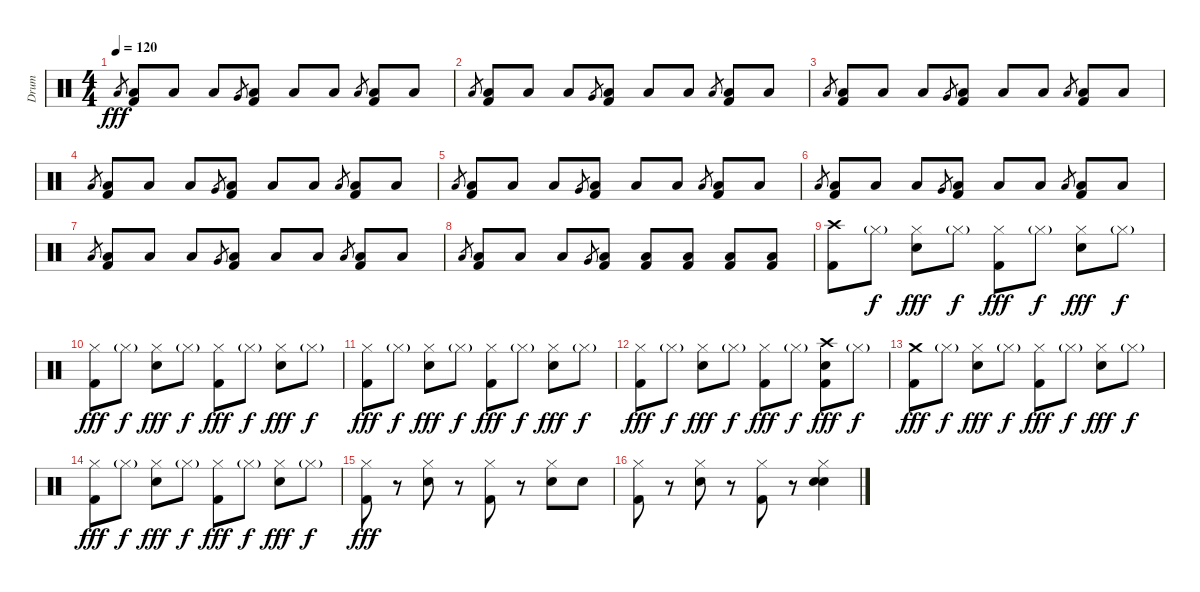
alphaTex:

\track ("Drum" "Drum") {instrument percussion}
\staff {score}
\articulation defaults
\ts (4 4)
\tempo 120
\clef neutral
\ks c "Low Floor Tom (hit)".8{gr dy fff}
("Low Floor Tom (hit)" "Kick (hit) 2").8 "Low Floor Tom (hit)".8 "Low Floor Tom (hit)".8 "Very Low Tom (hit)".8{gr} ("Low Floor Tom (hit)" "Kick (hit) 2").8 "Low Floor Tom (hit)".8 "Low Floor Tom (hit)".8 "Low Floor Tom (hit)".8{gr} ("Low Floor Tom (hit)" "Kick (hit) 2").8 "Low Floor Tom (hit)".8 |
"Low Floor Tom (hit)".8{gr} ("Low Floor Tom (hit)" "Kick (hit) 2").8 "Low Floor Tom (hit)".8 "Low Floor Tom (hit)".8 "Very Low Tom (hit)".8{gr} ("Low Floor Tom (hit)" "Kick (hit) 2").8 "Low Floor Tom (hit)".8 "Low Floor Tom (hit)".8 "Low Floor Tom (hit)".8{gr} ("Low Floor Tom (hit)" "Kick (hit) 2").8 "Low Floor Tom (hit)".8 |
"Low Floor Tom (hit)".8{gr} ("Low Floor Tom (hit)" "Kick (hit) 2").8 "Low Floor Tom (hit)".8 "Low Floor Tom (hit)".8 "Very Low Tom (hit)".8{gr} ("Low Floor Tom (hit)" "Kick (hit) 2").8 "Low Floor Tom (hit)".8 "Low Floor Tom (hit)".8 "Low Floor Tom (hit)".8{gr} ("Low Floor Tom (hit)" "Kick (hit) 2").8 "Low Floor Tom (hit)".8 |
"Low Floor Tom (hit)".8{gr} ("Low Floor Tom (hit)" "Kick (hit) 2").8 "Low Floor Tom (hit)".8 "Low Floor Tom (hit)".8 "Very Low Tom (hit)".8{gr} ("Low Floor Tom (hit)" "Kick (hit) 2").8 "Low Floor Tom (hit)".8 "Low Floor Tom (hit)".8 "Low Floor Tom (hit)".8{gr} ("Low Floor Tom (hit)" "Kick (hit) 2").8 "Low Floor Tom (hit)".8 |
"Low Floor Tom (hit)".8{gr} ("Low Floor Tom (hit)" "Kick (hit) 2").8 "Low Floor Tom (hit)".8 "Low Floor Tom (hit)".8 "Very Low Tom (hit)".8{gr} ("Low Floor Tom (hit)" "Kick (hit) 2").8 "Low Floor Tom (hit)".8 "Low Floor Tom (hit)".8 "Low Floor Tom (hit)".8{gr} ("Low Floor Tom (hit)" "Kick (hit) 2").8 "Low Floor Tom (hit)".8 |
"Low Floor Tom (hit)".8{gr} ("Low Floor Tom (hit)" "Kick (hit) 2").8 "Low Floor Tom (hit)".8 "Low Floor Tom (hit)".8 "Very Low Tom (hit)".8{gr} ("Low Floor Tom (hit)" "Kick (hit) 2").8 "Low Floor Tom (hit)".8 "Low Floor Tom (hit)".8 "Low Floor Tom (hit)".8{gr} ("Low Floor Tom (hit)" "Kick (hit) 2").8 "Low Floor Tom (hit)".8 |
"Low Floor Tom (hit)".8{gr} ("Low Floor Tom (hit)" "Kick (hit) 2").8 "Low Floor Tom (hit)".8 "Low Floor Tom (hit)".8 "Very Low Tom (hit)".8{gr} ("Low Floor Tom (hit)" "Kick (hit) 2").8 "Low Floor Tom (hit)".8 "Low Floor Tom (hit)".8 "Low Floor Tom (hit)".8{gr} ("Low Floor Tom (hit)" "Kick (hit) 2").8 "Low Floor Tom (hit)".8 |
"Low Floor Tom (hit)".8{gr} ("Low Floor Tom (hit)" "Kick (hit) 2").8 "Low Floor Tom (hit)".8 "Low Floor Tom (hit)".8 "Very Low Tom (hit)".8{gr} ("Low Floor Tom (hit)" "Kick (hit) 2").8 ("Low Floor Tom (hit)" "Kick (hit) 2").8 ("Low Floor Tom (hit)" "Kick (hit) 2").8 ("Low Floor Tom (hit)" "Kick (hit) 2").8 ("Low Floor Tom (hit)" "Kick (hit) 2").8 |
("Crash high (hit)" "Kick (hit) 2").8 "Hi-Hat (closed)"{g}.8{dy f} ("Hi-Hat (closed)" "Snare (hit) 2").8{dy fff} "Hi-Hat (closed)"{g}.8{dy f} ("Hi-Hat (closed)" "Kick (hit) 2").8{dy fff} "Hi-Hat (closed)"{g}.8{dy f} ("Hi-Hat (closed)" "Snare (hit) 2").8{dy fff} "Hi-Hat (closed)"{g}.8{dy f} |
("Hi-Hat (closed)" "Kick (hit) 2").8{dy fff} "Hi-Hat (closed)"{g}.8{dy f} ("Hi-Hat (closed)" "Snare (hit) 2").8{dy fff} "Hi-Hat (closed)"{g}.8{dy f} ("Hi-Hat (closed)" "Kick (hit) 2").8{dy fff} "Hi-Hat (closed)"{g}.8{dy f} ("Hi-Hat (closed)" "Snare (hit) 2").8{dy fff} "Hi-Hat (closed)"{g}.8{dy f} |
("Hi-Hat (closed)" "Kick (hit) 2").8{dy fff} "Hi-Hat (closed)"{g}.8{dy f} ("Hi-Hat (closed)" "Snare (hit) 2").8{dy fff} "Hi-Hat (closed)"{g}.8{dy f} ("Hi-Hat (closed)" "Kick (hit) 2").8{dy fff} "Hi-Hat (closed)"{g}.8{dy f} ("Hi-Hat (closed)" "Snare (hit) 2").8{dy fff} "Hi-Hat (closed)"{g}.8{dy f} |
("Hi-Hat (closed)" "Kick (hit) 2").8{dy fff} "Hi-Hat (closed)"{g}.8{dy f} ("Hi-Hat (closed)" "Snare (hit) 2").8{dy fff} "Hi-Hat (closed)"{g}.8{dy f} ("Hi-Hat (closed)" "Kick (hit) 2").8{dy fff} "Hi-Hat (closed)"{g}.8{dy f} ("Crash high (hit)" "Snare (hit) 2" "Kick (hit) 2").8{dy fff} "Hi-Hat (closed)"{g}.8{dy f} |
("Crash medium (hit)" "Kick (hit) 2").8{dy fff} "Hi-Hat (closed)"{g}.8{dy f} ("Hi-Hat (closed)" "Snare (hit) 2").8{dy fff} "Hi-Hat (closed)"{g}.8{dy f} ("Hi-Hat (closed)" "Kick (hit) 2").8{dy fff} "Hi-Hat (closed)"{g}.8{dy f} ("Hi-Hat (closed)" "Snare (hit) 2").8{dy fff} "Hi-Hat (closed)"{g}.8{dy f} |
("Hi-Hat (closed)" "Kick (hit) 2").8{dy fff} "Hi-Hat (closed)"{g}.8{dy f} ("Hi-Hat (closed)" "Snare (hit) 2").8{dy fff} "Hi-Hat (closed)"{g}.8{dy f} ("Hi-Hat (closed)" "Kick (hit) 2").8{dy fff} "Hi-Hat (closed)"{g}.8{dy f} ("Hi-Hat (closed)" "Snare (hit) 2").8{dy fff} "Hi-Hat (closed)"{g}.8{dy f} |
("Hi-Hat (closed)" "Kick (hit) 2").8{dy fff} r.8 ("Hi-Hat (closed)" "Snare (hit) 2").8 r.8 ("Hi-Hat (closed)" "Kick (hit) 2").8 r.8 ("Hi-Hat (closed)" "Snare (hit) 2").8 "Snare (hit)".8 |
("Hi-Hat (closed)" "Kick (hit) 2").8 r.8 ("Hi-Hat (closed)" "Snare (hit) 2").8 r.8 ("Hi-Hat (closed)" "Kick (hit) 2").8 r.8 ("Hi-Hat (closed)" "Snare (hit) 2" "Electric Snare (hit)").4
